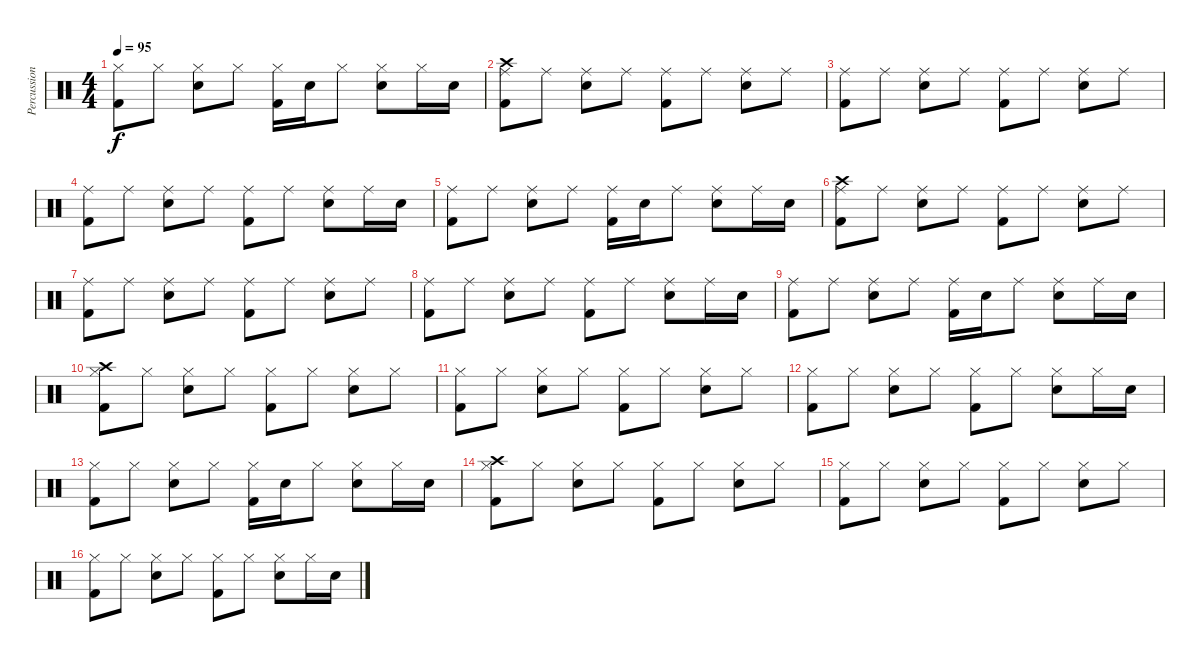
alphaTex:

\track ("Percussion" "Percussion") {instrument percussion}
\staff {score}
\articulation defaults
\ts (4 4)
\tempo 95
\clef neutral
\ks c
("Hi-Hat (closed)" "Kick (hit) 2").8{dy f} "Hi-Hat (closed)".8 ("Hi-Hat (closed)" "Electric Snare (hit)").8 "Hi-Hat (closed)".8 ("Hi-Hat (closed)" "Kick (hit) 2").16 "Electric Snare (hit)".16 "Hi-Hat (closed)".8 ("Hi-Hat (closed)" "Electric Snare (hit)").8 "Hi-Hat (closed)".16 "Electric Snare (hit)".16 |
("Crash high (hit)" "Ride (middle)" "Kick (hit) 2").8 "Ride (middle)".8 ("Ride (middle)" "Electric Snare (hit)").8 "Ride (middle)".8 ("Ride (middle)" "Kick (hit) 2").8 "Ride (middle)".8 ("Ride (middle)" "Electric Snare (hit)").8 "Ride (middle)".8 |
("Ride (middle)" "Kick (hit) 2").8 "Ride (middle)".8 ("Ride (middle)" "Electric Snare (hit)").8 "Ride (middle)".8 ("Ride (middle)" "Kick (hit) 2").8 "Ride (middle)".8 ("Ride (middle)" "Electric Snare (hit)").8 "Ride (middle)".8 |
("Ride (middle)" "Kick (hit) 2").8 "Ride (middle)".8 ("Ride (middle)" "Electric Snare (hit)").8 "Ride (middle)".8 ("Ride (middle)" "Kick (hit) 2").8 "Ride (middle)".8 ("Ride (middle)" "Electric Snare (hit)").8 "Ride (middle)".16 "Electric Snare (hit)".16 |
("Ride (middle)" "Kick (hit) 2").8 "Ride (middle)".8 ("Ride (middle)" "Electric Snare (hit)").8 "Ride (middle)".8 ("Ride (middle)" "Kick (hit) 2").16 "Electric Snare (hit)".16 "Ride (middle)".8 ("Ride (middle)" "Electric Snare (hit)").8 "Ride (middle)".16 "Electric Snare (hit)".16 |
("Crash high (hit)" "Ride (middle)" "Kick (hit) 2").8 "Ride (middle)".8 ("Ride (middle)" "Electric Snare (hit)").8 "Ride (middle)".8 ("Ride (middle)" "Kick (hit) 2").8 "Ride (middle)".8 ("Ride (middle)" "Electric Snare (hit)").8 "Ride (middle)".8 |
("Ride (middle)" "Kick (hit) 2").8 "Ride (middle)".8 ("Ride (middle)" "Electric Snare (hit)").8 "Ride (middle)".8 ("Ride (middle)" "Kick (hit) 2").8 "Ride (middle)".8 ("Ride (middle)" "Electric Snare (hit)").8 "Ride (middle)".8 |
("Ride (middle)" "Kick (hit) 2").8 "Ride (middle)".8 ("Ride (middle)" "Electric Snare (hit)").8 "Ride (middle)".8 ("Ride (middle)" "Kick (hit) 2").8 "Ride (middle)".8 ("Ride (middle)" "Electric Snare (hit)").8 "Ride (middle)".16 "Electric Snare (hit)".16 |
("Ride (middle)" "Kick (hit) 2").8 "Ride (middle)".8 ("Ride (middle)" "Electric Snare (hit)").8 "Ride (middle)".8 ("Ride (middle)" "Kick (hit) 2").16 "Electric Snare (hit)".16 "Ride (middle)".8 ("Ride (middle)" "Electric Snare (hit)").8 "Ride (middle)".16 "Electric Snare (hit)".16 |
("Crash high (hit)" "Hi-Hat (closed)" "Kick (hit) 2").8 "Hi-Hat (closed)".8 ("Hi-Hat (closed)" "Electric Snare (hit)").8 "Hi-Hat (closed)".8 ("Hi-Hat (closed)" "Kick (hit) 2").8 "Hi-Hat (closed)".8 ("Hi-Hat (closed)" "Electric Snare (hit)").8 "Hi-Hat (closed)".8 |
("Hi-Hat (closed)" "Kick (hit) 2").8 "Hi-Hat (closed)".8 ("Hi-Hat (closed)" "Electric Snare (hit)").8 "Hi-Hat (closed)".8 ("Hi-Hat (closed)" "Kick (hit) 2").8 "Hi-Hat (closed)".8 ("Hi-Hat (closed)" "Electric Snare (hit)").8 "Hi-Hat (closed)".8 |
("Hi-Hat (closed)" "Kick (hit) 2").8 "Hi-Hat (closed)".8 ("Hi-Hat (closed)" "Electric Snare (hit)").8 "Hi-Hat (closed)".8 ("Hi-Hat (closed)" "Kick (hit) 2").8 "Hi-Hat (closed)".8 ("Hi-Hat (closed)" "Electric Snare (hit)").8 "Hi-Hat (closed)".16 "Electric Snare (hit)".16 |
("Hi-Hat (closed)" "Kick (hit) 2").8 "Hi-Hat (closed)".8 ("Hi-Hat (closed)" "Electric Snare (hit)").8 "Hi-Hat (closed)".8 ("Hi-Hat (closed)" "Kick (hit) 2").16 "Electric Snare (hit)".16 "Hi-Hat (closed)".8 ("Hi-Hat (closed)" "Electric Snare (hit)").8 "Hi-Hat (closed)".16 "Electric Snare (hit)".16 |
("Crash high (hit)" "Hi-Hat (closed)" "Kick (hit) 2").8 "Hi-Hat (closed)".8 ("Hi-Hat (closed)" "Electric Snare (hit)").8 "Hi-Hat (closed)".8 ("Hi-Hat (closed)" "Kick (hit) 2").8 "Hi-Hat (closed)".8 ("Hi-Hat (closed)" "Electric Snare (hit)").8 "Hi-Hat (closed)".8 |
("Hi-Hat (closed)" "Kick (hit) 2").8 "Hi-Hat (closed)".8 ("Hi-Hat (closed)" "Electric Snare (hit)").8 "Hi-Hat (closed)".8 ("Hi-Hat (closed)" "Kick (hit) 2").8 "Hi-Hat (closed)".8 ("Hi-Hat (closed)" "Electric Snare (hit)").8 "Hi-Hat (closed)".8 |
("Hi-Hat (closed)" "Kick (hit) 2").8 "Hi-Hat (closed)".8 ("Hi-Hat (closed)" "Electric Snare (hit)").8 "Hi-Hat (closed)".8 ("Hi-Hat (closed)" "Kick (hit) 2").8 "Hi-Hat (closed)".8 ("Hi-Hat (closed)" "Electric Snare (hit)").8 "Hi-Hat (closed)".16 "Electric Snare (hit)".16
